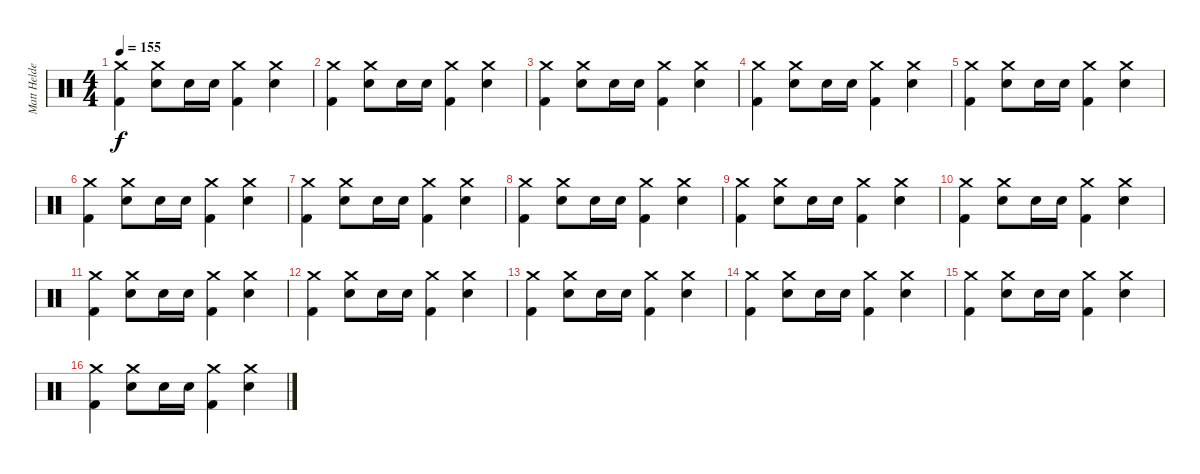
\track ("Matt Helders" "Matt Helde") {instrument percussion}
\staff {score}
\articulation defaults
\ts (4 4)
\tempo 155
\clef neutral
\ks c
("Crash medium (hit)" "Kick (hit) 2").4{dy f} ("Crash medium (hit)" "Snare (hit) 2").8 "Snare (hit) 2".16 "Snare (hit) 2".16 ("Crash medium (hit)" "Kick (hit) 2").4 ("Crash medium (hit)" "Snare (hit) 2").4 |
("Crash medium (hit)" "Kick (hit) 2").4 ("Crash medium (hit)" "Snare (hit) 2").8 "Snare (hit) 2".16 "Snare (hit) 2".16 ("Crash medium (hit)" "Kick (hit) 2").4 ("Crash medium (hit)" "Snare (hit) 2").4 |
("Crash medium (hit)" "Kick (hit) 2").4 ("Crash medium (hit)" "Snare (hit) 2").8 "Snare (hit) 2".16 "Snare (hit) 2".16 ("Crash medium (hit)" "Kick (hit) 2").4 ("Crash medium (hit)" "Snare (hit) 2").4 |
("Crash medium (hit)" "Kick (hit) 2").4 ("Crash medium (hit)" "Snare (hit) 2").8 "Snare (hit) 2".16 "Snare (hit) 2".16 ("Crash medium (hit)" "Kick (hit) 2").4 ("Crash medium (hit)" "Snare (hit) 2").4 |
("Crash medium (hit)" "Kick (hit) 2").4 ("Crash medium (hit)" "Snare (hit) 2").8 "Snare (hit) 2".16 "Snare (hit) 2".16 ("Crash medium (hit)" "Kick (hit) 2").4 ("Crash medium (hit)" "Snare (hit) 2").4 |
("Crash medium (hit)" "Kick (hit) 2").4 ("Crash medium (hit)" "Snare (hit) 2").8 "Snare (hit) 2".16 "Snare (hit) 2".16 ("Crash medium (hit)" "Kick (hit) 2").4 ("Crash medium (hit)" "Snare (hit) 2").4 |
("Crash medium (hit)" "Kick (hit) 2").4 ("Crash medium (hit)" "Snare (hit) 2").8 "Snare (hit) 2".16 "Snare (hit) 2".16 ("Crash medium (hit)" "Kick (hit) 2").4 ("Crash medium (hit)" "Snare (hit) 2").4 |
("Crash medium (hit)" "Kick (hit) 2").4 ("Crash medium (hit)" "Snare (hit) 2").8 "Snare (hit) 2".16 "Snare (hit) 2".16 ("Crash medium (hit)" "Kick (hit) 2").4 ("Crash medium (hit)" "Snare (hit) 2").4 |
("Crash medium (hit)" "Kick (hit) 2").4 ("Crash medium (hit)" "Snare (hit) 2").8 "Snare (hit) 2".16 "Snare (hit) 2".16 ("Crash medium (hit)" "Kick (hit) 2").4 ("Crash medium (hit)" "Snare (hit) 2").4 |
("Crash medium (hit)" "Kick (hit) 2").4 ("Crash medium (hit)" "Snare (hit) 2").8 "Snare (hit) 2".16 "Snare (hit) 2".16 ("Crash medium (hit)" "Kick (hit) 2").4 ("Crash medium (hit)" "Snare (hit) 2").4 |
("Crash medium (hit)" "Kick (hit) 2").4 ("Crash medium (hit)" "Snare (hit) 2").8 "Snare (hit) 2".16 "Snare (hit) 2".16 ("Crash medium (hit)" "Kick (hit) 2").4 ("Crash medium (hit)" "Snare (hit) 2").4 |
("Crash medium (hit)" "Kick (hit) 2").4 ("Crash medium (hit)" "Snare (hit) 2").8 "Snare (hit) 2".16 "Snare (hit) 2".16 ("Crash medium (hit)" "Kick (hit) 2").4 ("Crash medium (hit)" "Snare (hit) 2").4 |
("Crash medium (hit)" "Kick (hit) 2").4 ("Crash medium (hit)" "Snare (hit) 2").8 "Snare (hit) 2".16 "Snare (hit) 2".16 ("Crash medium (hit)" "Kick (hit) 2").4 ("Crash medium (hit)" "Snare (hit) 2").4 |
("Crash medium (hit)" "Kick (hit) 2").4 ("Crash medium (hit)" "Snare (hit) 2").8 "Snare (hit) 2".16 "Snare (hit) 2".16 ("Crash medium (hit)" "Kick (hit) 2").4 ("Crash medium (hit)" "Snare (hit) 2").4 |
("Crash medium (hit)" "Kick (hit) 2").4 ("Crash medium (hit)" "Snare (hit) 2").8 "Snare (hit) 2".16 "Snare (hit) 2".16 ("Crash medium (hit)" "Kick (hit) 2").4 ("Crash medium (hit)" "Snare (hit) 2").4 |
("Crash medium (hit)" "Kick (hit) 2").4 ("Crash medium (hit)" "Snare (hit) 2").8 "Snare (hit) 2".16 "Snare (hit) 2".16 ("Crash medium (hit)" "Kick (hit) 2").4 ("Crash medium (hit)" "Snare (hit) 2").4
